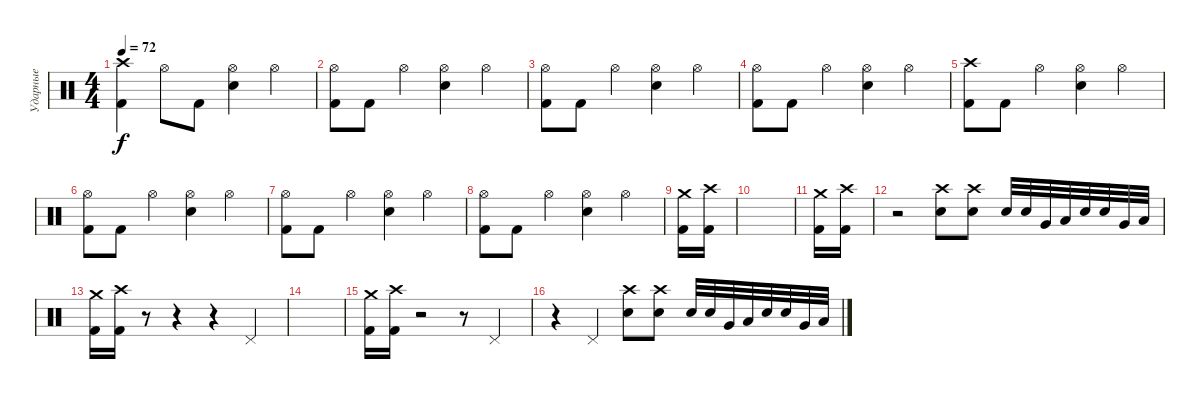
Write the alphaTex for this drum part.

\track ("Ударные" "Ударные") {instrument percussion}
\staff {score}
\articulation defaults
\ts (4 4)
\tempo 72
\clef neutral
\ks c
("Crash high (hit)" "Kick (hit) 2").4{dy f} "Hi-Hat (open)".8 "Kick (hit) 2".8 ("Hi-Hat (open)" "Snare (hit) 2").4 "Hi-Hat (open)".4 |
("Hi-Hat (open)" "Kick (hit) 2").8 "Kick (hit) 2".8 "Hi-Hat (open)".4 ("Hi-Hat (open)" "Snare (hit) 2").4 "Hi-Hat (open)".4 |
("Hi-Hat (open)" "Kick (hit) 2").8 "Kick (hit) 2".8 "Hi-Hat (open)".4 ("Hi-Hat (open)" "Snare (hit) 2").4 "Hi-Hat (open)".4 |
("Hi-Hat (open)" "Kick (hit) 2").8 "Kick (hit) 2".8 "Hi-Hat (open)".4 ("Hi-Hat (open)" "Snare (hit) 2").4 "Hi-Hat (open)".4 |
("Crash high (hit)" "Kick (hit) 2").8 "Kick (hit) 2".8 "Hi-Hat (open)".4 ("Hi-Hat (open)" "Snare (hit) 2").4 "Hi-Hat (open)".4 |
("Hi-Hat (open)" "Kick (hit) 2").8 "Kick (hit) 2".8 "Hi-Hat (open)".4 ("Hi-Hat (open)" "Snare (hit) 2").4 "Hi-Hat (open)".4 |
("Hi-Hat (open)" "Kick (hit) 2").8 "Kick (hit) 2".8 "Hi-Hat (open)".4 ("Hi-Hat (open)" "Snare (hit) 2").4 "Hi-Hat (open)".4 |
("Hi-Hat (open)" "Kick (hit) 2").8 "Kick (hit) 2".8 "Hi-Hat (open)".4 ("Hi-Hat (open)" "Snare (hit) 2").4 "Hi-Hat (open)".4 |
("Crash medium (hit)" "Kick (hit) 2").16 ("Crash high (hit)" "Kick (hit) 2").16 |
|
("Crash medium (hit)" "Kick (hit) 2").16 ("Crash high (hit)" "Kick (hit) 2").16 |
r.2 ("Crash high (hit)" "Snare (hit) 2").8 ("Crash high (hit)" "Snare (hit) 2").8 "Snare (hit) 2".32 "Snare (hit) 2".32 "Very Low Tom (hit)".32 "Low Floor Tom (hit)".32 "Snare (hit) 2".32 "Snare (hit) 2".32 "Very Low Tom (hit)".32 "Low Floor Tom (hit)".32 |
("Crash medium (hit)" "Kick (hit) 2").16 ("Crash high (hit)" "Kick (hit) 2").16 r.8 r.4 r.4 "Pedal Hi-Hat (hit)".4 |
|
("Crash medium (hit)" "Kick (hit) 2").16 ("Crash high (hit)" "Kick (hit) 2").16 r.2 r.8 "Pedal Hi-Hat (hit)".4 |
r.4 "Pedal Hi-Hat (hit)".4 ("Crash high (hit)" "Snare (hit) 2").8 ("Crash high (hit)" "Snare (hit) 2").8 "Snare (hit) 2".32 "Snare (hit) 2".32 "Very Low Tom (hit)".32 "Low Floor Tom (hit)".32 "Snare (hit) 2".32 "Snare (hit) 2".32 "Very Low Tom (hit)".32 "Low Floor Tom (hit)".32
